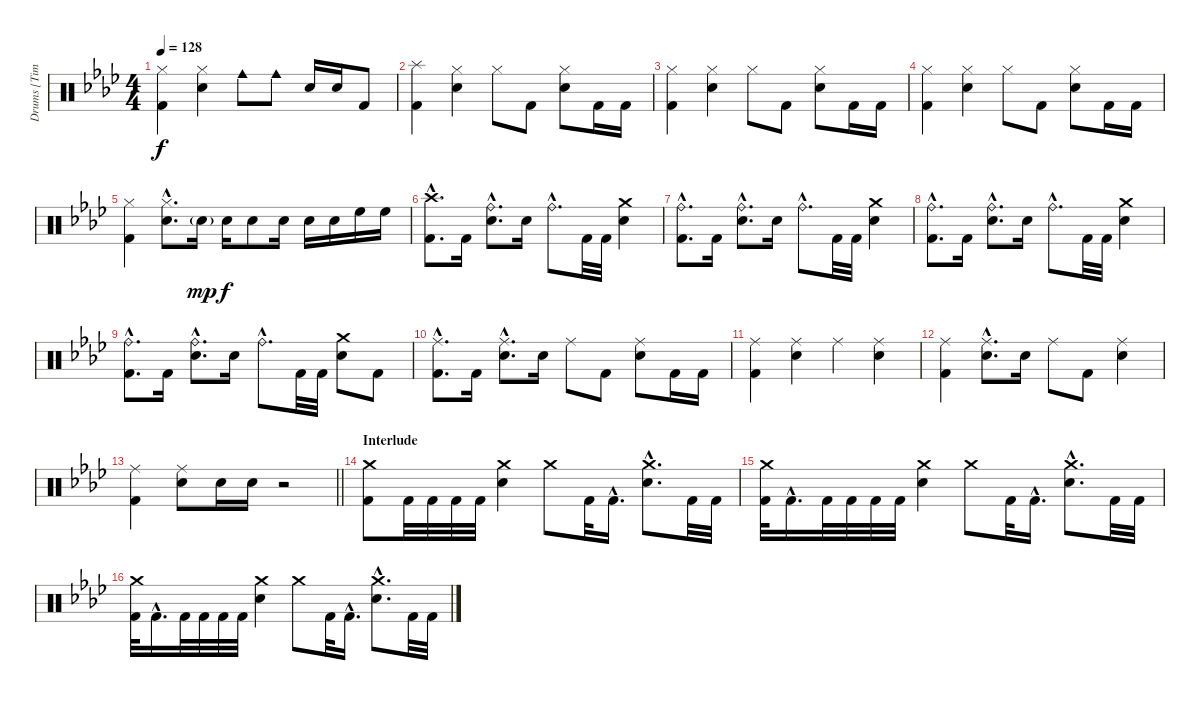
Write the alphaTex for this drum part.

\track ("Drums [Tim Alexander]" "Drums [Tim") {instrument percussion}
\staff {score}
\articulation defaults
\ts (4 4)
\tempo 128
\clef neutral
\ks ab
("Hi-Hat (closed)" "Kick (hit) 2").4{dy f} ("Hi-Hat (closed)" "Electric Snare (hit)").4 "Cowbell medium (hit)".8 "Cowbell medium (hit)".8 "Electric Snare (hit)".16 "Electric Snare (hit)".16 "Kick (hit) 2".8 |
("Splash (hit)" "Kick (hit) 2").4 ("Hi-Hat (closed)" "Electric Snare (hit)").4 "Hi-Hat (closed)".8 "Kick (hit) 2".8 ("Hi-Hat (closed)" "Electric Snare (hit)").8 "Kick (hit) 2".16 "Kick (hit) 2".16 |
("Hi-Hat (closed)" "Kick (hit) 2").4 ("Hi-Hat (closed)" "Electric Snare (hit)").4 "Hi-Hat (closed)".8 "Kick (hit) 2".8 ("Hi-Hat (closed)" "Electric Snare (hit)").8 "Kick (hit) 2".16 "Kick (hit) 2".16 |
("Hi-Hat (closed)" "Kick (hit) 2").4 ("Hi-Hat (closed)" "Electric Snare (hit)").4 "Hi-Hat (closed)".8 "Kick (hit) 2".8 ("Hi-Hat (closed)" "Electric Snare (hit)").8 "Kick (hit) 2".16 "Kick (hit) 2".16 |
("Hi-Hat (closed)" "Kick (hit) 2").4 ("Hi-Hat (closed)"{hac} "Electric Snare (hit)"{hac}).8{d} "Electric Snare (hit)"{g}.16{dy mp} "Electric Snare (hit)".16{dy f} "Electric Snare (hit)".8 "Electric Snare (hit)".16 "Electric Snare (hit)".16 "Electric Snare (hit)".16 "High Floor Tom (hit)".16 "High Floor Tom (hit)".16 |
("Crash high (hit)"{hac} "Kick (hit) 2"{hac}).8{d} "Kick (hit) 2".16 ("Ride (bell)"{hac} "Electric Snare (hit)"{hac}).8{d} "Electric Snare (hit)".16 "Ride (bell)"{hac}.8{d} "Kick (hit) 2".32 "Kick (hit) 2".32 ("Crash medium (hit)" "Electric Snare (hit)").4 |
("Ride (bell)"{hac} "Kick (hit) 2"{hac}).8{d} "Kick (hit) 2".16 ("Ride (bell)"{hac} "Electric Snare (hit)"{hac}).8{d} "Electric Snare (hit)".16 "Ride (bell)"{hac}.8{d} "Kick (hit) 2".32 "Kick (hit) 2".32 ("Crash medium (hit)" "Electric Snare (hit)").4 |
("Ride (bell)"{hac} "Kick (hit) 2"{hac}).8{d} "Kick (hit) 2".16 ("Ride (bell)"{hac} "Electric Snare (hit)"{hac}).8{d} "Electric Snare (hit)".16 "Ride (bell)"{hac}.8{d} "Kick (hit) 2".32 "Kick (hit) 2".32 ("Crash medium (hit)" "Electric Snare (hit)").4 |
("Ride (bell)"{hac} "Kick (hit) 2"{hac}).8{d} "Kick (hit) 2".16 ("Ride (bell)"{hac} "Electric Snare (hit)"{hac}).8{d} "Electric Snare (hit)".16 "Ride (bell)"{hac}.8{d} "Kick (hit) 2".32 "Kick (hit) 2".32 ("Crash medium (hit)" "Electric Snare (hit)").8 "Kick (hit) 2".8 |
("Ride (middle)"{hac} "Kick (hit) 2"{hac}).8{d} "Kick (hit) 2".16 ("Ride (middle)"{hac} "Electric Snare (hit)"{hac}).8{d} "Electric Snare (hit)".16 "Ride (middle)".8 "Kick (hit) 2".8 ("Ride (middle)" "Electric Snare (hit)").8 "Kick (hit) 2".16 "Kick (hit) 2".16 |
("Ride (middle)" "Kick (hit) 2").4 ("Ride (middle)" "Electric Snare (hit)").4 "Ride (middle)".4 ("Ride (middle)" "Electric Snare (hit)").4 |
("Ride (middle)" "Kick (hit) 2").4 ("Ride (middle)"{hac} "Electric Snare (hit)"{hac}).8{d} "Electric Snare (hit)".16 "Ride (middle)".8 "Kick (hit) 2".8 ("Ride (middle)" "Electric Snare (hit)").4 |
\barLineRight lightlight
("Ride (middle)" "Kick (hit) 2").4 ("Ride (middle)" "Electric Snare (hit)").8 "Electric Snare (hit)".16 "Electric Snare (hit)".16 r.2 |
\section ("" "Interlude")
("Crash medium (hit)" "Kick (hit) 2").8 "Kick (hit) 2".32 "Kick (hit) 2".32 "Kick (hit) 2".32 "Kick (hit) 2".32 ("Crash medium (hit)" "Electric Snare (hit)").4 "Crash medium (hit)".8 "Kick (hit) 2".32 "Kick (hit) 2"{hac}.16{d} ("Crash medium (hit)"{hac} "Electric Snare (hit)"{hac}).8{d} "Kick (hit) 2".32 "Kick (hit) 2".32 |
("Crash medium (hit)" "Kick (hit) 2").32 "Kick (hit) 2"{hac}.16{d} "Kick (hit) 2".32 "Kick (hit) 2".32 "Kick (hit) 2".32 "Kick (hit) 2".32 ("Crash medium (hit)" "Electric Snare (hit)").4 "Crash medium (hit)".8 "Kick (hit) 2".32 "Kick (hit) 2"{hac}.16{d} ("Crash medium (hit)"{hac} "Electric Snare (hit)"{hac}).8{d} "Kick (hit) 2".32 "Kick (hit) 2".32 |
("Crash medium (hit)" "Kick (hit) 2").32 "Kick (hit) 2"{hac}.16{d} "Kick (hit) 2".32 "Kick (hit) 2".32 "Kick (hit) 2".32 "Kick (hit) 2".32 ("Crash medium (hit)" "Electric Snare (hit)").4 "Crash medium (hit)".8 "Kick (hit) 2".32 "Kick (hit) 2"{hac}.16{d} ("Crash medium (hit)"{hac} "Electric Snare (hit)"{hac}).8{d} "Kick (hit) 2".32 "Kick (hit) 2".32
